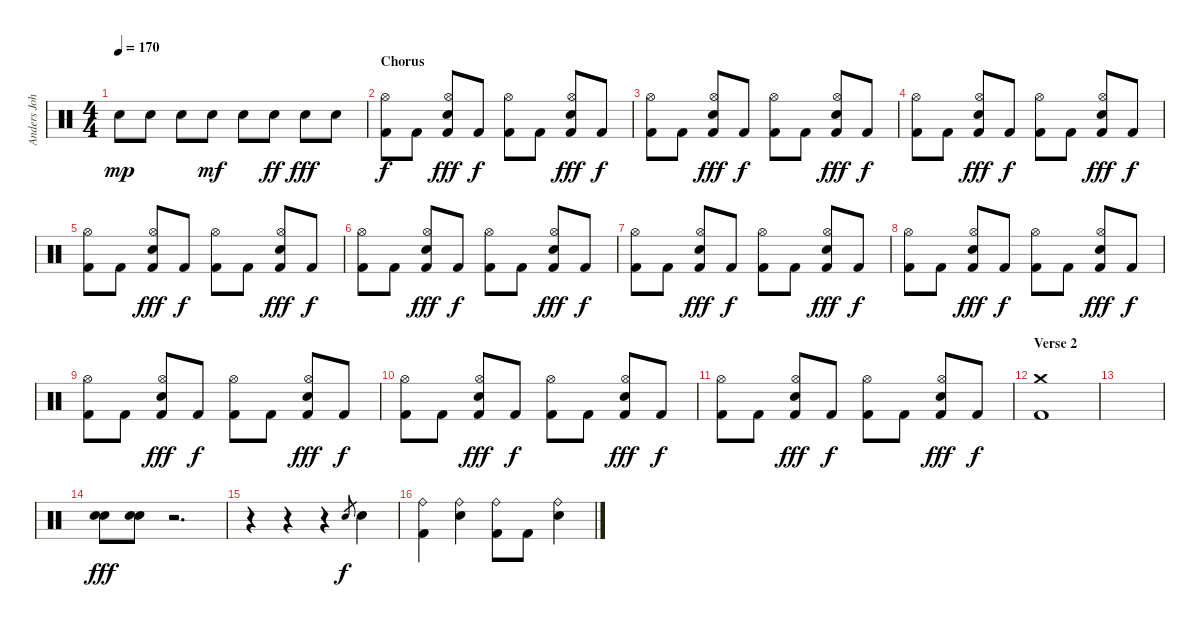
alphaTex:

\track ("Anders Johansson" "Anders Joh") {instrument percussion}
\staff {score}
\articulation defaults
\ts (4 4)
\tempo 170
\clef neutral
\ks c "Snare (hit) 2".8{dy mp} "Snare (hit) 2".8 "Snare (hit) 2".8 "Snare (hit) 2".8{dy mf} "Snare (hit) 2".8 "Snare (hit) 2".8{dy ff} "Snare (hit) 2".8{dy fff} "Snare (hit) 2".8
|
\section ("" "Chorus")
("Hi-Hat (open)" "Kick (hit) 2").8{dy f} "Kick (hit) 2".8 ("Hi-Hat (open)" "Snare (hit) 2" "Kick (hit) 2").8{dy fff} "Kick (hit) 2".8{dy f} ("Hi-Hat (open)" "Kick (hit) 2").8 "Kick (hit) 2".8 ("Hi-Hat (open)" "Snare (hit) 2" "Kick (hit) 2").8{dy fff} "Kick (hit) 2".8{dy f} |
("Hi-Hat (open)" "Kick (hit) 2").8 "Kick (hit) 2".8 ("Hi-Hat (open)" "Snare (hit) 2" "Kick (hit) 2").8{dy fff} "Kick (hit) 2".8{dy f} ("Hi-Hat (open)" "Kick (hit) 2").8 "Kick (hit) 2".8 ("Hi-Hat (open)" "Snare (hit) 2" "Kick (hit) 2").8{dy fff} "Kick (hit) 2".8{dy f} |
("Hi-Hat (open)" "Kick (hit) 2").8 "Kick (hit) 2".8 ("Hi-Hat (open)" "Snare (hit) 2" "Kick (hit) 2").8{dy fff} "Kick (hit) 2".8{dy f} ("Hi-Hat (open)" "Kick (hit) 2").8 "Kick (hit) 2".8 ("Hi-Hat (open)" "Snare (hit) 2" "Kick (hit) 2").8{dy fff} "Kick (hit) 2".8{dy f} |
("Hi-Hat (open)" "Kick (hit) 2").8 "Kick (hit) 2".8 ("Hi-Hat (open)" "Snare (hit) 2" "Kick (hit) 2").8{dy fff} "Kick (hit) 2".8{dy f} ("Hi-Hat (open)" "Kick (hit) 2").8 "Kick (hit) 2".8 ("Hi-Hat (open)" "Snare (hit) 2" "Kick (hit) 2").8{dy fff} "Kick (hit) 2".8{dy f} |
("Hi-Hat (open)" "Kick (hit) 2").8 "Kick (hit) 2".8 ("Hi-Hat (open)" "Snare (hit) 2" "Kick (hit) 2").8{dy fff} "Kick (hit) 2".8{dy f} ("Hi-Hat (open)" "Kick (hit) 2").8 "Kick (hit) 2".8 ("Hi-Hat (open)" "Snare (hit) 2" "Kick (hit) 2").8{dy fff} "Kick (hit) 2".8{dy f} |
("Hi-Hat (open)" "Kick (hit) 2").8 "Kick (hit) 2".8 ("Hi-Hat (open)" "Snare (hit) 2" "Kick (hit) 2").8{dy fff} "Kick (hit) 2".8{dy f} ("Hi-Hat (open)" "Kick (hit) 2").8 "Kick (hit) 2".8 ("Hi-Hat (open)" "Snare (hit) 2" "Kick (hit) 2").8{dy fff} "Kick (hit) 2".8{dy f} |
("Hi-Hat (open)" "Kick (hit) 2").8 "Kick (hit) 2".8 ("Hi-Hat (open)" "Snare (hit) 2" "Kick (hit) 2").8{dy fff} "Kick (hit) 2".8{dy f} ("Hi-Hat (open)" "Kick (hit) 2").8 "Kick (hit) 2".8 ("Hi-Hat (open)" "Snare (hit) 2" "Kick (hit) 2").8{dy fff} "Kick (hit) 2".8{dy f} |
("Hi-Hat (open)" "Kick (hit) 2").8 "Kick (hit) 2".8 ("Hi-Hat (open)" "Snare (hit) 2" "Kick (hit) 2").8{dy fff} "Kick (hit) 2".8{dy f} ("Hi-Hat (open)" "Kick (hit) 2").8 "Kick (hit) 2".8 ("Hi-Hat (open)" "Snare (hit) 2" "Kick (hit) 2").8{dy fff} "Kick (hit) 2".8{dy f} |
("Hi-Hat (open)" "Kick (hit) 2").8 "Kick (hit) 2".8 ("Hi-Hat (open)" "Snare (hit) 2" "Kick (hit) 2").8{dy fff} "Kick (hit) 2".8{dy f} ("Hi-Hat (open)" "Kick (hit) 2").8 "Kick (hit) 2".8 ("Hi-Hat (open)" "Snare (hit) 2" "Kick (hit) 2").8{dy fff} "Kick (hit) 2".8{dy f} |
("Hi-Hat (open)" "Kick (hit) 2").8 "Kick (hit) 2".8 ("Hi-Hat (open)" "Snare (hit) 2" "Kick (hit) 2").8{dy fff} "Kick (hit) 2".8{dy f} ("Hi-Hat (open)" "Kick (hit) 2").8 "Kick (hit) 2".8 ("Hi-Hat (open)" "Snare (hit) 2" "Kick (hit) 2").8{dy fff} "Kick (hit) 2".8{dy f} |
\section ("" "Verse 2")
("Crash medium (hit)" "Kick (hit) 2").1 |
|
("Snare (hit) 2" "Snare (hit) 2").8{dy fff balance 0} ("Snare (hit) 2" "Snare (hit) 2").8{balance 16} r.2{d balance 8} |
r.4 r.4 r.4 "Snare (hit) 2".8{gr dy f} "Snare (hit) 2".4 |
("Ride (bell)" "Kick (hit) 2").4 ("Ride (bell)" "Snare (hit) 2").4 ("Ride (bell)" "Kick (hit) 2").8 "Kick (hit) 2".8 ("Ride (bell)" "Snare (hit) 2").4
